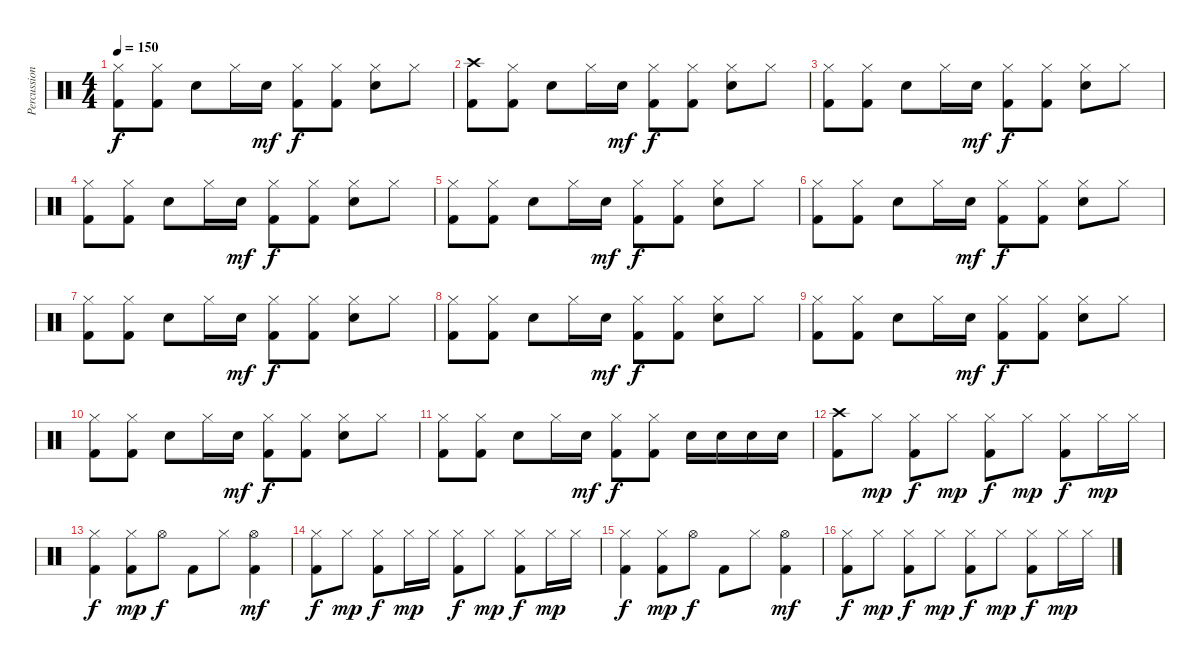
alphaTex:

\track ("Percussion" "Percussion") {instrument percussion}
\staff {score}
\articulation defaults
\ts (4 4)
\tempo 150
\clef neutral
\ks c
("Kick (hit) 2" "Hi-Hat (closed)").8{dy f} ("Kick (hit) 2" "Hi-Hat (closed)").8 "Electric Snare (hit)".8 "Hi-Hat (closed)".16 "Electric Snare (hit)".16{dy mf} ("Kick (hit) 2" "Hi-Hat (closed)").8{dy f} ("Kick (hit) 2" "Hi-Hat (closed)").8 ("Electric Snare (hit)" "Hi-Hat (closed)").8 "Hi-Hat (closed)".8 |
("Kick (hit) 2" "Crash high (hit)").8 ("Kick (hit) 2" "Hi-Hat (closed)").8 "Electric Snare (hit)".8 "Hi-Hat (closed)".16 "Electric Snare (hit)".16{dy mf} ("Kick (hit) 2" "Hi-Hat (closed)").8{dy f} ("Kick (hit) 2" "Hi-Hat (closed)").8 ("Electric Snare (hit)" "Hi-Hat (closed)").8 "Hi-Hat (closed)".8 |
("Kick (hit) 2" "Hi-Hat (closed)").8 ("Kick (hit) 2" "Hi-Hat (closed)").8 "Electric Snare (hit)".8 "Hi-Hat (closed)".16 "Electric Snare (hit)".16{dy mf} ("Kick (hit) 2" "Hi-Hat (closed)").8{dy f} ("Kick (hit) 2" "Hi-Hat (closed)").8 ("Electric Snare (hit)" "Hi-Hat (closed)").8 "Hi-Hat (closed)".8 |
("Kick (hit) 2" "Hi-Hat (closed)").8 ("Kick (hit) 2" "Hi-Hat (closed)").8 "Electric Snare (hit)".8 "Hi-Hat (closed)".16 "Electric Snare (hit)".16{dy mf} ("Kick (hit) 2" "Hi-Hat (closed)").8{dy f} ("Kick (hit) 2" "Hi-Hat (closed)").8 ("Electric Snare (hit)" "Hi-Hat (closed)").8 "Hi-Hat (closed)".8 |
("Kick (hit) 2" "Hi-Hat (closed)").8 ("Kick (hit) 2" "Hi-Hat (closed)").8 "Electric Snare (hit)".8 "Hi-Hat (closed)".16 "Electric Snare (hit)".16{dy mf} ("Kick (hit) 2" "Hi-Hat (closed)").8{dy f} ("Kick (hit) 2" "Hi-Hat (closed)").8 ("Electric Snare (hit)" "Hi-Hat (closed)").8 "Hi-Hat (closed)".8 |
("Kick (hit) 2" "Hi-Hat (closed)").8 ("Kick (hit) 2" "Hi-Hat (closed)").8 "Electric Snare (hit)".8 "Hi-Hat (closed)".16 "Electric Snare (hit)".16{dy mf} ("Kick (hit) 2" "Hi-Hat (closed)").8{dy f} ("Kick (hit) 2" "Hi-Hat (closed)").8 ("Electric Snare (hit)" "Hi-Hat (closed)").8 "Hi-Hat (closed)".8 |
("Kick (hit) 2" "Hi-Hat (closed)").8 ("Kick (hit) 2" "Hi-Hat (closed)").8 "Electric Snare (hit)".8 "Hi-Hat (closed)".16 "Electric Snare (hit)".16{dy mf} ("Kick (hit) 2" "Hi-Hat (closed)").8{dy f} ("Kick (hit) 2" "Hi-Hat (closed)").8 ("Electric Snare (hit)" "Hi-Hat (closed)").8 "Hi-Hat (closed)".8 |
("Kick (hit) 2" "Hi-Hat (closed)").8 ("Kick (hit) 2" "Hi-Hat (closed)").8 "Electric Snare (hit)".8 "Hi-Hat (closed)".16 "Electric Snare (hit)".16{dy mf} ("Kick (hit) 2" "Hi-Hat (closed)").8{dy f} ("Kick (hit) 2" "Hi-Hat (closed)").8 ("Electric Snare (hit)" "Hi-Hat (closed)").8 "Hi-Hat (closed)".8 |
("Kick (hit) 2" "Hi-Hat (closed)").8 ("Kick (hit) 2" "Hi-Hat (closed)").8 "Electric Snare (hit)".8 "Hi-Hat (closed)".16 "Electric Snare (hit)".16{dy mf} ("Kick (hit) 2" "Hi-Hat (closed)").8{dy f} ("Kick (hit) 2" "Hi-Hat (closed)").8 ("Electric Snare (hit)" "Hi-Hat (closed)").8 "Hi-Hat (closed)".8 |
("Kick (hit) 2" "Hi-Hat (closed)").8 ("Kick (hit) 2" "Hi-Hat (closed)").8 "Electric Snare (hit)".8 "Hi-Hat (closed)".16 "Electric Snare (hit)".16{dy mf} ("Kick (hit) 2" "Hi-Hat (closed)").8{dy f} ("Kick (hit) 2" "Hi-Hat (closed)").8 ("Electric Snare (hit)" "Hi-Hat (closed)").8 "Hi-Hat (closed)".8 |
("Kick (hit) 2" "Hi-Hat (closed)").8 ("Kick (hit) 2" "Hi-Hat (closed)").8 "Electric Snare (hit)".8 "Hi-Hat (closed)".16 "Electric Snare (hit)".16{dy mf} ("Kick (hit) 2" "Hi-Hat (closed)").8{dy f} ("Kick (hit) 2" "Hi-Hat (closed)").8 "Electric Snare (hit)".16 "Electric Snare (hit)".16 "Electric Snare (hit)".16 "Electric Snare (hit)".16 |
("Kick (hit) 2" "Crash high (hit)").8 "Hi-Hat (closed)".8{dy mp} ("Kick (hit) 2" "Hi-Hat (closed)").8{dy f} "Hi-Hat (closed)".8{dy mp} ("Kick (hit) 2" "Hi-Hat (closed)").8{dy f} "Hi-Hat (closed)".8{dy mp} ("Kick (hit) 2" "Hi-Hat (closed)").8{dy f} "Hi-Hat (closed)".16{dy mp} "Hi-Hat (closed)".16 |
("Kick (hit) 2" "Hi-Hat (closed)").4{dy f} ("Kick (hit) 2" "Hi-Hat (closed)").8{dy mp} "Hi-Hat (open)".8{dy f} "Kick (hit) 2".8 "Hi-Hat (closed)".8 ("Hi-Hat (open)" "Kick (hit) 2").4{dy mf} |
("Kick (hit) 2" "Hi-Hat (closed)").8{dy f} "Hi-Hat (closed)".8{dy mp} ("Kick (hit) 2" "Hi-Hat (closed)").8{dy f} "Hi-Hat (closed)".16{dy mp} "Hi-Hat (closed)".16 ("Kick (hit) 2" "Hi-Hat (closed)").8{dy f} "Hi-Hat (closed)".8{dy mp} ("Kick (hit) 2" "Hi-Hat (closed)").8{dy f} "Hi-Hat (closed)".16{dy mp} "Hi-Hat (closed)".16 |
("Kick (hit) 2" "Hi-Hat (closed)").4{dy f} ("Kick (hit) 2" "Hi-Hat (closed)").8{dy mp} "Hi-Hat (open)".8{dy f} "Kick (hit) 2".8 "Hi-Hat (closed)".8 ("Hi-Hat (open)" "Kick (hit) 2").4{dy mf} |
("Kick (hit) 2" "Hi-Hat (closed)").8{dy f} "Hi-Hat (closed)".8{dy mp} ("Kick (hit) 2" "Hi-Hat (closed)").8{dy f} "Hi-Hat (closed)".8{dy mp} ("Kick (hit) 2" "Hi-Hat (closed)").8{dy f} "Hi-Hat (closed)".8{dy mp} ("Kick (hit) 2" "Hi-Hat (closed)").8{dy f} "Hi-Hat (closed)".16{dy mp} "Hi-Hat (closed)".16
